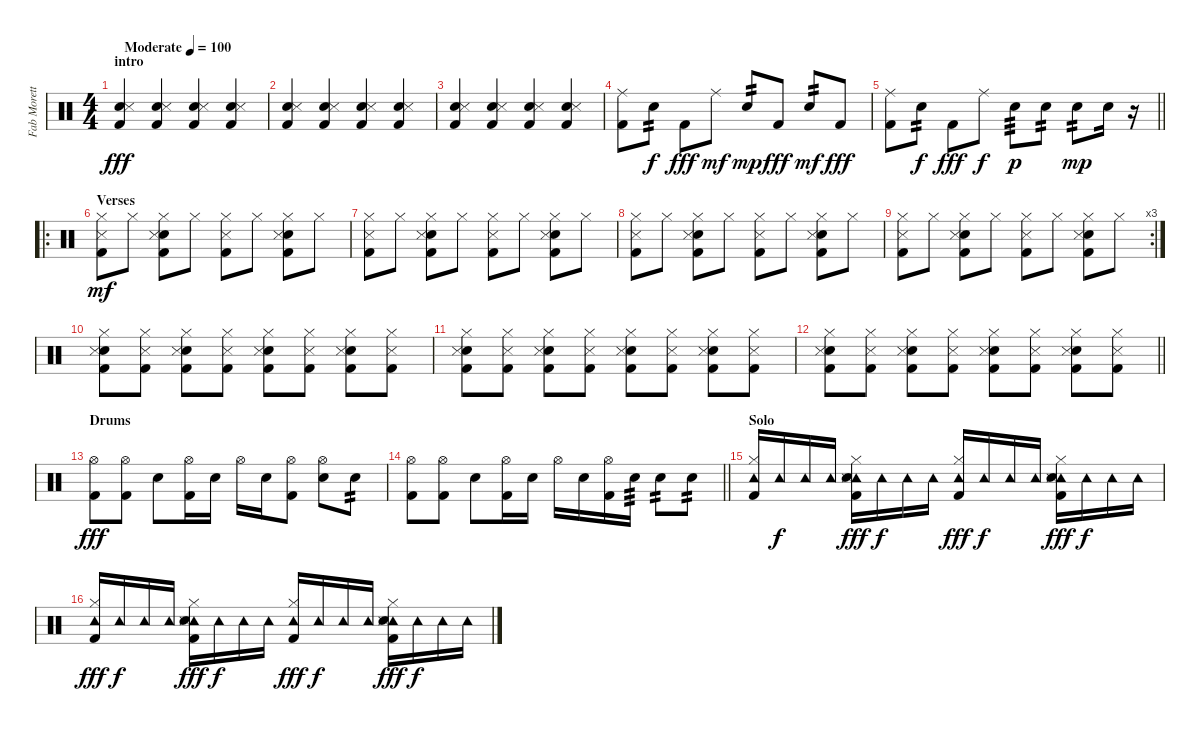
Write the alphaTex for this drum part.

\track ("Fab Moretti - Drums" "Fab Morett") {instrument percussion}
\staff {score}
\articulation defaults
\ts (4 4)
\section ("" "intro")
\tempo (100 "Moderate")
\clef neutral
\ks c
("Electric Snare (hit)" "Snare (side stick) 3" "Kick (hit) 2").4{dy fff} ("Electric Snare (hit)" "Snare (side stick) 3" "Kick (hit) 2").4 ("Electric Snare (hit)" "Snare (side stick) 3" "Kick (hit) 2").4 ("Electric Snare (hit)" "Snare (side stick) 3" "Kick (hit) 2").4 |
("Electric Snare (hit)" "Snare (side stick) 3" "Kick (hit) 2").4 ("Electric Snare (hit)" "Snare (side stick) 3" "Kick (hit) 2").4 ("Electric Snare (hit)" "Snare (side stick) 3" "Kick (hit) 2").4 ("Electric Snare (hit)" "Snare (side stick) 3" "Kick (hit) 2").4 |
("Electric Snare (hit)" "Snare (side stick) 3" "Kick (hit) 2").4 ("Electric Snare (hit)" "Snare (side stick) 3" "Kick (hit) 2").4 ("Electric Snare (hit)" "Snare (side stick) 3" "Kick (hit) 2").4 ("Electric Snare (hit)" "Snare (side stick) 3" "Kick (hit) 2").4 |
("Ride (middle)" "Kick (hit) 2").8 "Electric Snare (hit)".8{tp 2 dy f} "Kick (hit) 2".8{dy fff} "Ride (middle)".8{dy mf} "Electric Snare (hit)".8{tp 2 dy mp} "Kick (hit) 2".8{dy fff} "Electric Snare (hit)".8{tp 2 dy mf} "Kick (hit) 2".8{dy fff} |
\barLineRight lightlight
("Ride (middle)" "Kick (hit) 2").8 "Electric Snare (hit)".8{tp 2 dy f} "Kick (hit) 2".8{dy fff} "Ride (middle)".8{dy f} "Electric Snare (hit)".8{tp 3 dy p} "Electric Snare (hit)".8{tp 2} "Electric Snare (hit)".8{tp 2 dy mp} "Electric Snare (hit)".16 r.16 |
\ro
\section ("" "Verses")
("Kick (hit) 2" "Hi-Hat (closed)" "Snare (side stick) 3").8{dy mf} "Hi-Hat (closed)".8 ("Kick (hit) 2" "Hi-Hat (closed)" "Electric Snare (hit)" "Snare (side stick) 3").8 "Hi-Hat (closed)".8 ("Kick (hit) 2" "Hi-Hat (closed)" "Snare (side stick) 3").8 "Hi-Hat (closed)".8 ("Kick (hit) 2" "Hi-Hat (closed)" "Electric Snare (hit)" "Snare (side stick) 3").8 "Hi-Hat (closed)".8 |
("Kick (hit) 2" "Hi-Hat (closed)" "Snare (side stick) 3").8 "Hi-Hat (closed)".8 ("Kick (hit) 2" "Hi-Hat (closed)" "Electric Snare (hit)" "Snare (side stick) 3").8 "Hi-Hat (closed)".8 ("Kick (hit) 2" "Hi-Hat (closed)" "Snare (side stick) 3").8 "Hi-Hat (closed)".8 ("Kick (hit) 2" "Hi-Hat (closed)" "Electric Snare (hit)" "Snare (side stick) 3").8 "Hi-Hat (closed)".8 |
("Kick (hit) 2" "Hi-Hat (closed)" "Snare (side stick) 3").8 "Hi-Hat (closed)".8 ("Kick (hit) 2" "Hi-Hat (closed)" "Electric Snare (hit)" "Snare (side stick) 3").8 "Hi-Hat (closed)".8 ("Kick (hit) 2" "Hi-Hat (closed)" "Snare (side stick) 3").8 "Hi-Hat (closed)".8 ("Kick (hit) 2" "Hi-Hat (closed)" "Electric Snare (hit)" "Snare (side stick) 3").8 "Hi-Hat (closed)".8 |
\rc 3
("Kick (hit) 2" "Hi-Hat (closed)" "Snare (side stick) 3").8 "Hi-Hat (closed)".8 ("Kick (hit) 2" "Hi-Hat (closed)" "Electric Snare (hit)" "Snare (side stick) 3").8 "Hi-Hat (closed)".8 ("Kick (hit) 2" "Hi-Hat (closed)" "Snare (side stick) 3").8 "Hi-Hat (closed)".8 ("Kick (hit) 2" "Hi-Hat (closed)" "Electric Snare (hit)" "Snare (side stick) 3").8 "Hi-Hat (closed)".8 |
("Kick (hit) 2" "Hi-Hat (closed)" "Electric Snare (hit)" "Snare (side stick) 3").8 ("Kick (hit) 2" "Hi-Hat (closed)" "Snare (side stick) 3").8 ("Kick (hit) 2" "Hi-Hat (closed)" "Electric Snare (hit)" "Snare (side stick) 3").8 ("Kick (hit) 2" "Hi-Hat (closed)" "Snare (side stick) 3").8 ("Kick (hit) 2" "Hi-Hat (closed)" "Electric Snare (hit)" "Snare (side stick) 3").8 ("Kick (hit) 2" "Hi-Hat (closed)" "Snare (side stick) 3").8 ("Kick (hit) 2" "Hi-Hat (closed)" "Electric Snare (hit)" "Snare (side stick) 3").8 ("Kick (hit) 2" "Hi-Hat (closed)" "Snare (side stick) 3").8 |
("Kick (hit) 2" "Hi-Hat (closed)" "Electric Snare (hit)" "Snare (side stick) 3").8 ("Kick (hit) 2" "Hi-Hat (closed)" "Snare (side stick) 3").8 ("Kick (hit) 2" "Hi-Hat (closed)" "Electric Snare (hit)" "Snare (side stick) 3").8 ("Kick (hit) 2" "Hi-Hat (closed)" "Snare (side stick) 3").8 ("Kick (hit) 2" "Hi-Hat (closed)" "Electric Snare (hit)" "Snare (side stick) 3").8 ("Kick (hit) 2" "Hi-Hat (closed)" "Snare (side stick) 3").8 ("Kick (hit) 2" "Hi-Hat (closed)" "Electric Snare (hit)" "Snare (side stick) 3").8 ("Kick (hit) 2" "Hi-Hat (closed)" "Snare (side stick) 3").8 |
\barLineRight lightlight
("Kick (hit) 2" "Hi-Hat (closed)" "Electric Snare (hit)" "Snare (side stick) 3").8 ("Kick (hit) 2" "Hi-Hat (closed)" "Snare (side stick) 3").8 ("Kick (hit) 2" "Hi-Hat (closed)" "Electric Snare (hit)" "Snare (side stick) 3").8 ("Kick (hit) 2" "Hi-Hat (closed)" "Snare (side stick) 3").8 ("Kick (hit) 2" "Hi-Hat (closed)" "Electric Snare (hit)" "Snare (side stick) 3").8 ("Kick (hit) 2" "Hi-Hat (closed)" "Snare (side stick) 3").8 ("Kick (hit) 2" "Hi-Hat (closed)" "Electric Snare (hit)" "Snare (side stick) 3").8 ("Kick (hit) 2" "Hi-Hat (closed)" "Snare (side stick) 3").8 |
\section ("" "Drums")
("Hi-Hat (open)" "Kick (hit) 2").8{dy fff} ("Hi-Hat (open)" "Kick (hit) 2").8 "Electric Snare (hit)".8 ("Hi-Hat (open)" "Kick (hit) 2").16 "Electric Snare (hit)".16 "Hi-Hat (open)".16 "Electric Snare (hit)".16 ("Hi-Hat (open)" "Kick (hit) 2").8 ("Hi-Hat (open)" "Electric Snare (hit)").8 "Electric Snare (hit)".8{tp 2} |
\barLineRight lightlight
("Hi-Hat (open)" "Kick (hit) 2").8 ("Hi-Hat (open)" "Kick (hit) 2").8 "Electric Snare (hit)".8 ("Hi-Hat (open)" "Kick (hit) 2").16 "Electric Snare (hit)".16 "Hi-Hat (open)".16 "Electric Snare (hit)".16 ("Hi-Hat (open)" "Kick (hit) 2").16 "Electric Snare (hit)".16{tp 3} "Electric Snare (hit)".8{tp 2} "Electric Snare (hit)".8{tp 2} |
\section ("" "Solo")
("Tambourine (hit)" "Hi-Hat (closed)" "Kick (hit) 2").16 "Tambourine (hit)".16{dy f} "Tambourine (hit)".16 "Tambourine (hit)".16 ("Tambourine (hit)" "Snare (side stick) 3" "Hi-Hat (closed)" "Electric Snare (hit)" "Kick (hit) 2").16{dy fff} "Tambourine (hit)".16{dy f} "Tambourine (hit)".16 "Tambourine (hit)".16 ("Tambourine (hit)" "Hi-Hat (closed)" "Kick (hit) 2").16{dy fff} "Tambourine (hit)".16{dy f} "Tambourine (hit)".16 "Tambourine (hit)".16 ("Tambourine (hit)" "Snare (side stick) 3" "Hi-Hat (closed)" "Electric Snare (hit)" "Kick (hit) 2").16{dy fff} "Tambourine (hit)".16{dy f} "Tambourine (hit)".16 "Tambourine (hit)".16 |
("Tambourine (hit)" "Hi-Hat (closed)" "Kick (hit) 2").16{dy fff} "Tambourine (hit)".16{dy f} "Tambourine (hit)".16 "Tambourine (hit)".16 ("Tambourine (hit)" "Snare (side stick) 3" "Hi-Hat (closed)" "Electric Snare (hit)" "Kick (hit) 2").16{dy fff} "Tambourine (hit)".16{dy f} "Tambourine (hit)".16 "Tambourine (hit)".16 ("Tambourine (hit)" "Hi-Hat (closed)" "Kick (hit) 2").16{dy fff} "Tambourine (hit)".16{dy f} "Tambourine (hit)".16 "Tambourine (hit)".16 ("Tambourine (hit)" "Snare (side stick) 3" "Hi-Hat (closed)" "Electric Snare (hit)" "Kick (hit) 2").16{dy fff} "Tambourine (hit)".16{dy f} "Tambourine (hit)".16 "Tambourine (hit)".16
